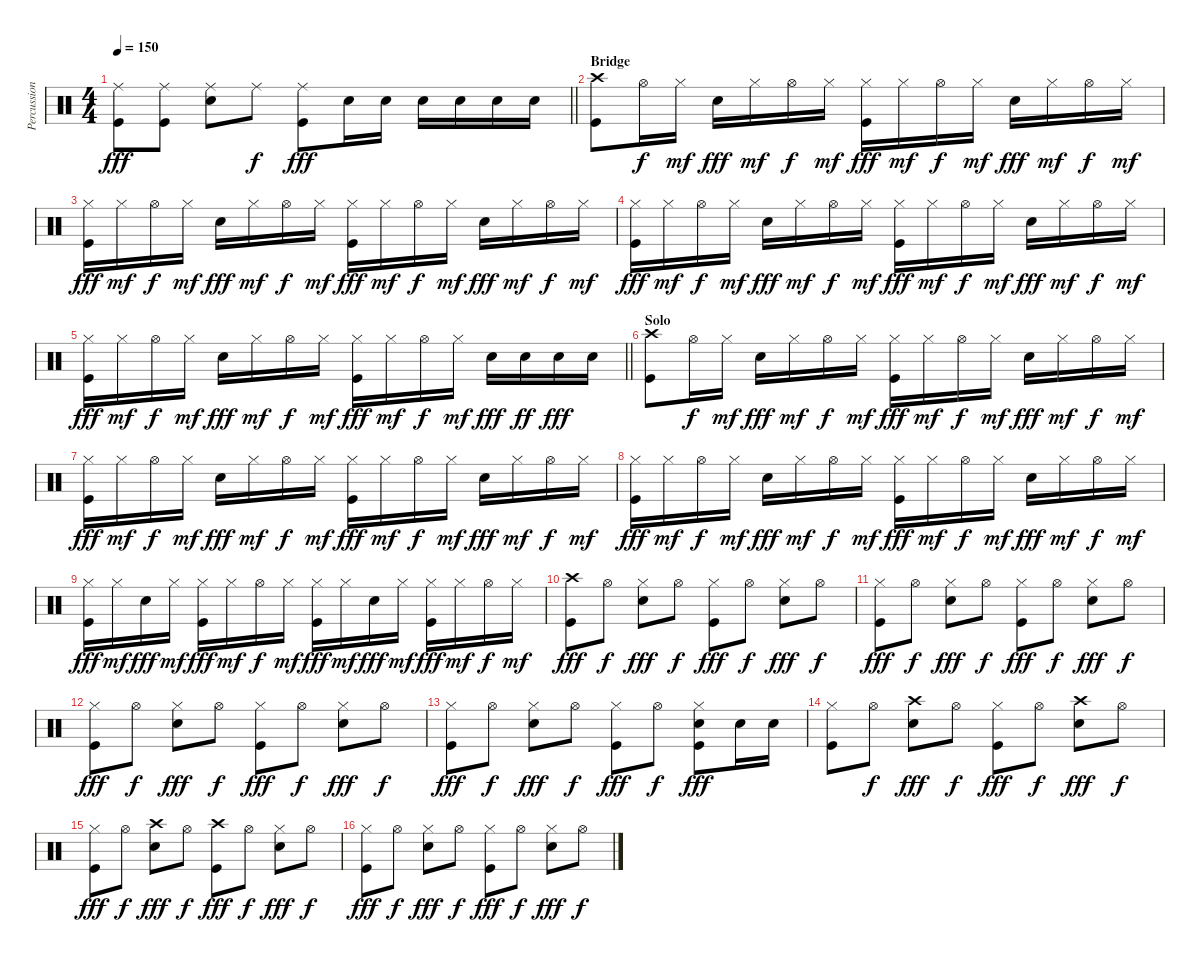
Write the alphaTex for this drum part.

\track ("Percussion" "Percussion") {instrument percussion}
\staff {score}
\articulation defaults
\ts (4 4)
\tempo 150
\clef neutral
\barLineRight lightlight
\ks c
("Ride (middle)" "Kick (hit)").8{dy fff} ("Ride (middle)" "Kick (hit)").8 ("Ride (middle)" "Electric Snare (hit)").8 "Ride (middle)".8{dy f} ("Ride (middle)" "Kick (hit)").8{dy fff} "Electric Snare (hit)".16 "Electric Snare (hit)".16 "Electric Snare (hit)".16 "Electric Snare (hit)".16 "Electric Snare (hit)".16 "Electric Snare (hit)".16 |
\section ("" "Bridge")
("Crash high (hit)" "Kick (hit)").8 "Hi-Hat (open)".16{dy f} "Hi-Hat (closed)".16{dy mf} "Electric Snare (hit)".16{dy fff} "Hi-Hat (closed)".16{dy mf} "Hi-Hat (open)".16{dy f} "Hi-Hat (closed)".16{dy mf} ("Hi-Hat (closed)" "Kick (hit)").16{dy fff} "Hi-Hat (closed)".16{dy mf} "Hi-Hat (open)".16{dy f} "Hi-Hat (closed)".16{dy mf} "Electric Snare (hit)".16{dy fff} "Hi-Hat (closed)".16{dy mf} "Hi-Hat (open)".16{dy f} "Hi-Hat (closed)".16{dy mf} |
("Hi-Hat (closed)" "Kick (hit)").16{dy fff} "Hi-Hat (closed)".16{dy mf} "Hi-Hat (open)".16{dy f} "Hi-Hat (closed)".16{dy mf} "Electric Snare (hit)".16{dy fff} "Hi-Hat (closed)".16{dy mf} "Hi-Hat (open)".16{dy f} "Hi-Hat (closed)".16{dy mf} ("Hi-Hat (closed)" "Kick (hit)").16{dy fff} "Hi-Hat (closed)".16{dy mf} "Hi-Hat (open)".16{dy f} "Hi-Hat (closed)".16{dy mf} "Electric Snare (hit)".16{dy fff} "Hi-Hat (closed)".16{dy mf} "Hi-Hat (open)".16{dy f} "Hi-Hat (closed)".16{dy mf} |
("Hi-Hat (closed)" "Kick (hit)").16{dy fff} "Hi-Hat (closed)".16{dy mf} "Hi-Hat (open)".16{dy f} "Hi-Hat (closed)".16{dy mf} "Electric Snare (hit)".16{dy fff} "Hi-Hat (closed)".16{dy mf} "Hi-Hat (open)".16{dy f} "Hi-Hat (closed)".16{dy mf} ("Hi-Hat (closed)" "Kick (hit)").16{dy fff} "Hi-Hat (closed)".16{dy mf} "Hi-Hat (open)".16{dy f} "Hi-Hat (closed)".16{dy mf} "Electric Snare (hit)".16{dy fff} "Hi-Hat (closed)".16{dy mf} "Hi-Hat (open)".16{dy f} "Hi-Hat (closed)".16{dy mf} |
\barLineRight lightlight
("Hi-Hat (closed)" "Kick (hit)").16{dy fff} "Hi-Hat (closed)".16{dy mf} "Hi-Hat (open)".16{dy f} "Hi-Hat (closed)".16{dy mf} "Electric Snare (hit)".16{dy fff} "Hi-Hat (closed)".16{dy mf} "Hi-Hat (open)".16{dy f} "Hi-Hat (closed)".16{dy mf} ("Hi-Hat (closed)" "Kick (hit)").16{dy fff} "Hi-Hat (closed)".16{dy mf} "Hi-Hat (open)".16{dy f} "Hi-Hat (closed)".16{dy mf} "Electric Snare (hit)".16{dy fff} "Electric Snare (hit)".16{dy ff} "Electric Snare (hit)".16{dy fff} "Electric Snare (hit)".16 |
\section ("" "Solo")
("Crash high (hit)" "Kick (hit)").8 "Hi-Hat (open)".16{dy f} "Hi-Hat (closed)".16{dy mf} "Electric Snare (hit)".16{dy fff} "Hi-Hat (closed)".16{dy mf} "Hi-Hat (open)".16{dy f} "Hi-Hat (closed)".16{dy mf} ("Hi-Hat (closed)" "Kick (hit)").16{dy fff} "Hi-Hat (closed)".16{dy mf} "Hi-Hat (open)".16{dy f} "Hi-Hat (closed)".16{dy mf} "Electric Snare (hit)".16{dy fff} "Hi-Hat (closed)".16{dy mf} "Hi-Hat (open)".16{dy f} "Hi-Hat (closed)".16{dy mf} |
("Hi-Hat (closed)" "Kick (hit)").16{dy fff} "Hi-Hat (closed)".16{dy mf} "Hi-Hat (open)".16{dy f} "Hi-Hat (closed)".16{dy mf} "Electric Snare (hit)".16{dy fff} "Hi-Hat (closed)".16{dy mf} "Hi-Hat (open)".16{dy f} "Hi-Hat (closed)".16{dy mf} ("Hi-Hat (closed)" "Kick (hit)").16{dy fff} "Hi-Hat (closed)".16{dy mf} "Hi-Hat (open)".16{dy f} "Hi-Hat (closed)".16{dy mf} "Electric Snare (hit)".16{dy fff} "Hi-Hat (closed)".16{dy mf} "Hi-Hat (open)".16{dy f} "Hi-Hat (closed)".16{dy mf} |
("Hi-Hat (closed)" "Kick (hit)").16{dy fff} "Hi-Hat (closed)".16{dy mf} "Hi-Hat (open)".16{dy f} "Hi-Hat (closed)".16{dy mf} "Electric Snare (hit)".16{dy fff} "Hi-Hat (closed)".16{dy mf} "Hi-Hat (open)".16{dy f} "Hi-Hat (closed)".16{dy mf} ("Hi-Hat (closed)" "Kick (hit)").16{dy fff} "Hi-Hat (closed)".16{dy mf} "Hi-Hat (open)".16{dy f} "Hi-Hat (closed)".16{dy mf} "Electric Snare (hit)".16{dy fff} "Hi-Hat (closed)".16{dy mf} "Hi-Hat (open)".16{dy f} "Hi-Hat (closed)".16{dy mf} |
("Hi-Hat (closed)" "Kick (hit)").16{dy fff} "Hi-Hat (closed)".16{dy mf} "Electric Snare (hit)".16{dy fff} "Hi-Hat (closed)".16{dy mf} ("Hi-Hat (closed)" "Kick (hit)").16{dy fff} "Hi-Hat (closed)".16{dy mf} "Hi-Hat (open)".16{dy f} "Hi-Hat (closed)".16{dy mf} ("Hi-Hat (closed)" "Kick (hit)").16{dy fff} "Hi-Hat (closed)".16{dy mf} "Electric Snare (hit)".16{dy fff} "Hi-Hat (closed)".16{dy mf} ("Hi-Hat (closed)" "Kick (hit)").16{dy fff} "Hi-Hat (closed)".16{dy mf} "Hi-Hat (open)".16{dy f} "Hi-Hat (closed)".16{dy mf} |
("Crash high (hit)" "Kick (hit)").8{dy fff} "Hi-Hat (open)".8{dy f} ("Hi-Hat (closed)" "Electric Snare (hit)").8{dy fff} "Hi-Hat (open)".8{dy f} ("Hi-Hat (closed)" "Kick (hit)").8{dy fff} "Hi-Hat (open)".8{dy f} ("Hi-Hat (closed)" "Electric Snare (hit)").8{dy fff} "Hi-Hat (open)".8{dy f} |
("Hi-Hat (closed)" "Kick (hit)").8{dy fff} "Hi-Hat (open)".8{dy f} ("Hi-Hat (closed)" "Electric Snare (hit)").8{dy fff} "Hi-Hat (open)".8{dy f} ("Hi-Hat (closed)" "Kick (hit)").8{dy fff} "Hi-Hat (open)".8{dy f} ("Hi-Hat (closed)" "Electric Snare (hit)").8{dy fff} "Hi-Hat (open)".8{dy f} |
("Hi-Hat (closed)" "Kick (hit)").8{dy fff} "Hi-Hat (open)".8{dy f} ("Hi-Hat (closed)" "Electric Snare (hit)").8{dy fff} "Hi-Hat (open)".8{dy f} ("Hi-Hat (closed)" "Kick (hit)").8{dy fff} "Hi-Hat (open)".8{dy f} ("Hi-Hat (closed)" "Electric Snare (hit)").8{dy fff} "Hi-Hat (open)".8{dy f} |
("Hi-Hat (closed)" "Kick (hit)").8{dy fff} "Hi-Hat (open)".8{dy f} ("Hi-Hat (closed)" "Electric Snare (hit)").8{dy fff} "Hi-Hat (open)".8{dy f} ("Hi-Hat (closed)" "Kick (hit)").8{dy fff} "Hi-Hat (open)".8{dy f} ("Hi-Hat (closed)" "Electric Snare (hit)" "Kick (hit)").8{dy fff} "Electric Snare (hit)".16 "Electric Snare (hit)".16 |
("Hi-Hat (closed)" "Kick (hit)").8 "Hi-Hat (open)".8{dy f} ("Crash high (hit)" "Electric Snare (hit)").8{dy fff} "Hi-Hat (open)".8{dy f} ("Hi-Hat (closed)" "Kick (hit)").8{dy fff} "Hi-Hat (open)".8{dy f} ("Crash high (hit)" "Electric Snare (hit)").8{dy fff} "Hi-Hat (open)".8{dy f} |
("Hi-Hat (closed)" "Kick (hit)").8{dy fff} "Hi-Hat (open)".8{dy f} ("Crash high (hit)" "Electric Snare (hit)").8{dy fff} "Hi-Hat (open)".8{dy f} ("Crash high (hit)" "Kick (hit)").8{dy fff} "Hi-Hat (open)".8{dy f} ("Hi-Hat (closed)" "Electric Snare (hit)").8{dy fff} "Hi-Hat (open)".8{dy f} |
("Hi-Hat (closed)" "Kick (hit)").8{dy fff} "Hi-Hat (open)".8{dy f} ("Hi-Hat (closed)" "Electric Snare (hit)").8{dy fff} "Hi-Hat (open)".8{dy f} ("Hi-Hat (closed)" "Kick (hit)").8{dy fff} "Hi-Hat (open)".8{dy f} ("Hi-Hat (closed)" "Electric Snare (hit)").8{dy fff} "Hi-Hat (open)".8{dy f}
